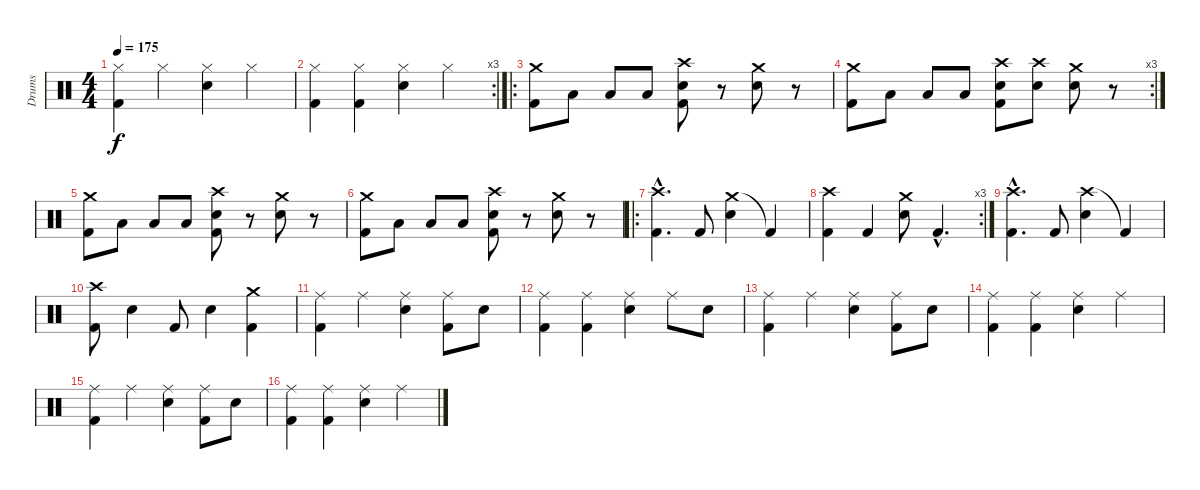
\track ("Drums" "Drums") {instrument percussion}
\staff {score}
\articulation defaults
\ts (4 4)
\tempo 175
\clef neutral
\ks c
("Hi-Hat (closed)" "Kick (hit) 2").4{dy f} "Hi-Hat (closed)".4 ("Hi-Hat (closed)" "Snare (hit) 2").4 "Hi-Hat (closed)".4 |
\rc 3
("Hi-Hat (closed)" "Kick (hit) 2").4 ("Hi-Hat (closed)" "Kick (hit) 2").4 ("Hi-Hat (closed)" "Snare (hit) 2").4 "Hi-Hat (closed)".4 |
\ro
("Crash medium (hit)" "Kick (hit) 2").8 "Low Tom (hit)".8 "Low Tom (hit)".8 "Low Tom (hit)".8 ("Crash high (hit)" "Snare (hit) 2" "Kick (hit) 2").8 r.8 ("Crash medium (hit)" "Snare (hit) 2").8 r.8 |
\rc 3
("Crash medium (hit)" "Kick (hit) 2").8 "Low Tom (hit)".8 "Low Tom (hit)".8 "Low Tom (hit)".8 ("Crash high (hit)" "Snare (hit) 2" "Kick (hit) 2").8 ("Crash high (hit)" "Snare (hit) 2").8 ("Crash medium (hit)" "Snare (hit) 2").8 r.8 |
("Crash medium (hit)" "Kick (hit) 2").8 "Low Tom (hit)".8 "Low Tom (hit)".8 "Low Tom (hit)".8 ("Crash high (hit)" "Snare (hit) 2" "Kick (hit) 2").8 r.8 ("Crash medium (hit)" "Snare (hit) 2").8 r.8 |
("Crash medium (hit)" "Kick (hit) 2").8 "Low Tom (hit)".8 "Low Tom (hit)".8 "Low Tom (hit)".8 ("Crash high (hit)" "Snare (hit) 2" "Kick (hit) 2").8 r.8 ("Crash medium (hit)" "Snare (hit) 2").8 r.8 |
\ro
("Crash high (hit)"{hac} "Kick (hit) 2"{hac}).4{d} "Kick (hit) 2".8 ("Crash medium (hit)" "Snare (hit) 2").4 "Kick (hit) 2"{t}.4 |
\rc 3
("Crash high (hit)" "Kick (hit) 2").4 "Kick (hit) 2".4 ("Crash medium (hit)" "Snare (hit) 2").8 "Kick (hit) 2"{hac}.4{d} |
("Crash high (hit)"{hac} "Kick (hit) 2"{hac}).4{d} "Kick (hit) 2".8 ("Crash high (hit)" "Snare (hit) 2").4 "Kick (hit) 2"{t}.4 |
("Crash high (hit)" "Kick (hit) 2").8 "Snare (hit) 2".4 "Kick (hit) 2".8 "Snare (hit) 2".4 ("Crash medium (hit)" "Kick (hit) 2").4 |
("Ride (middle)" "Kick (hit) 2").4 "Ride (middle)".4 ("Ride (middle)" "Snare (hit) 2").4 ("Ride (middle)" "Kick (hit) 2").8 "Snare (hit) 2".8 |
("Ride (middle)" "Kick (hit) 2").4 ("Ride (middle)" "Kick (hit) 2").4 ("Ride (middle)" "Snare (hit) 2").4 "Ride (middle)".8 "Snare (hit) 2".8 |
("Ride (middle)" "Kick (hit) 2").4 "Ride (middle)".4 ("Ride (middle)" "Snare (hit) 2").4 ("Ride (middle)" "Kick (hit) 2").8 "Snare (hit) 2".8 |
("Ride (middle)" "Kick (hit) 2").4 ("Ride (middle)" "Kick (hit) 2").4 ("Ride (middle)" "Snare (hit) 2").4 "Ride (middle)".4 |
("Ride (middle)" "Kick (hit) 2").4 "Ride (middle)".4 ("Ride (middle)" "Snare (hit) 2").4 ("Ride (middle)" "Kick (hit) 2").8 "Snare (hit) 2".8 |
("Ride (middle)" "Kick (hit) 2").4 ("Ride (middle)" "Kick (hit) 2").4 ("Ride (middle)" "Snare (hit) 2").4 "Ride (middle)".4
